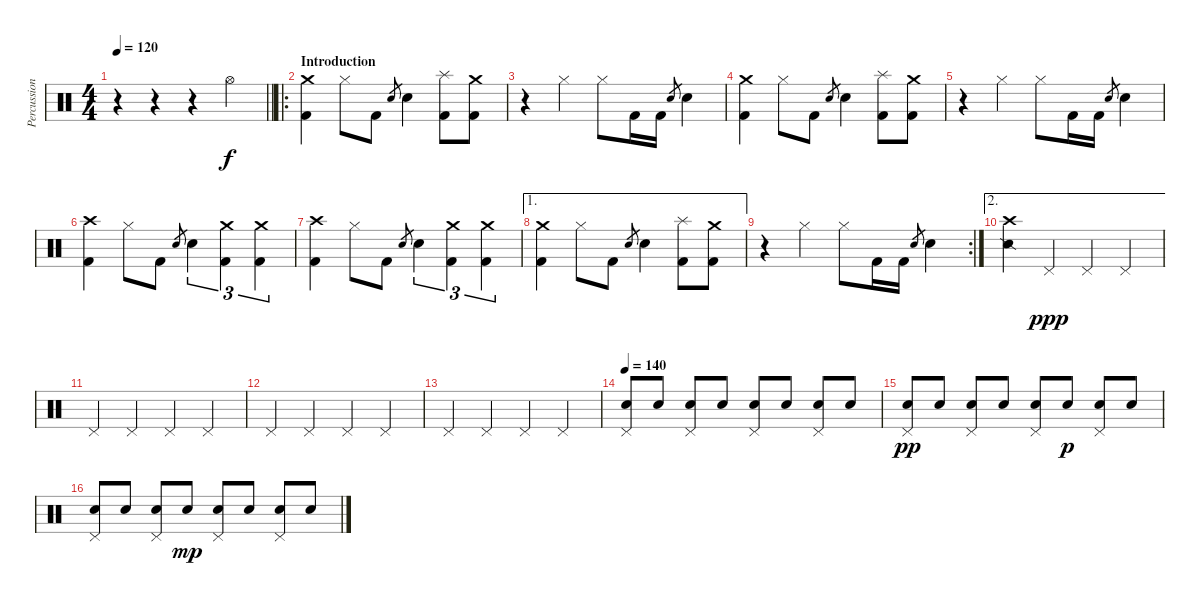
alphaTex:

\track ("Percussions" "Percussion") {instrument percussion}
\staff {score}
\articulation defaults
\ts (4 4)
\tempo 120
\tempo 140
\tempo 120
\clef neutral
\barLineRight lightlight
\ks c
r.4{dy f} r.4 r.4 "Hi-Hat (open)".4 |
\ro
\section ("" "Introduction")
("Crash medium (hit)" "Kick (hit) 2").4 "Hi-Hat (closed)".8 "Kick (hit) 2".8 "Electric Snare (hit)".8{gr} "Electric Snare (hit)".4 ("Splash (hit)" "Kick (hit) 2").8 ("Crash medium (hit)" "Kick (hit) 2").8 |
r.4 "Hi-Hat (closed)".4 "Hi-Hat (closed)".8 "Kick (hit) 2".16 "Kick (hit) 2".16 "Electric Snare (hit)".8{gr} "Electric Snare (hit)".4 |
("Crash medium (hit)" "Kick (hit) 2").4 "Hi-Hat (closed)".8 "Kick (hit) 2".8 "Electric Snare (hit)".8{gr} "Electric Snare (hit)".4 ("Splash (hit)" "Kick (hit) 2").8 ("Crash medium (hit)" "Kick (hit) 2").8 |
r.4 "Hi-Hat (closed)".4 "Hi-Hat (closed)".8 "Kick (hit) 2".16 "Kick (hit) 2".16 "Electric Snare (hit)".8{gr} "Electric Snare (hit)".4 |
("Crash high (hit)" "Kick (hit) 2").4 "Hi-Hat (closed)".8 "Kick (hit) 2".8 "Electric Snare (hit)".8{gr} "Electric Snare (hit)".4{tu (3 2)} ("Crash medium (hit)" "Kick (hit) 2").4{tu (3 2)} ("Crash medium (hit)" "Kick (hit) 2").4{tu (3 2)} |
("Crash high (hit)" "Kick (hit) 2").4 "Hi-Hat (closed)".8 "Kick (hit) 2".8 "Electric Snare (hit)".8{gr} "Electric Snare (hit)".4{tu (3 2)} ("Crash medium (hit)" "Kick (hit) 2").4{tu (3 2)} ("Crash medium (hit)" "Kick (hit) 2").4{tu (3 2)} |
\ae 1
("Crash medium (hit)" "Kick (hit) 2").4 "Hi-Hat (closed)".8 "Kick (hit) 2".8 "Electric Snare (hit)".8{gr} "Electric Snare (hit)".4 ("Splash (hit)" "Kick (hit) 2").8 ("Crash medium (hit)" "Kick (hit) 2").8 |
\rc 2
r.4 "Hi-Hat (closed)".4 "Hi-Hat (closed)".8 "Kick (hit) 2".16 "Kick (hit) 2".16 "Electric Snare (hit)".8{gr} "Electric Snare (hit)".4 |
\ae 2
("Crash high (hit)" "Snare (side stick) 2").4 "Pedal Hi-Hat (hit)".4{dy ppp} "Pedal Hi-Hat (hit)".4 "Pedal Hi-Hat (hit)".4 |
"Pedal Hi-Hat (hit)".4 "Pedal Hi-Hat (hit)".4 "Pedal Hi-Hat (hit)".4 "Pedal Hi-Hat (hit)".4 |
"Pedal Hi-Hat (hit)".4 "Pedal Hi-Hat (hit)".4 "Pedal Hi-Hat (hit)".4 "Pedal Hi-Hat (hit)".4 |
"Pedal Hi-Hat (hit)".4 "Pedal Hi-Hat (hit)".4 "Pedal Hi-Hat (hit)".4 "Pedal Hi-Hat (hit)".4 |
\tempo 140
("Pedal Hi-Hat (hit)" "Electric Snare (hit)").8 "Electric Snare (hit)".8 ("Pedal Hi-Hat (hit)" "Electric Snare (hit)").8 "Electric Snare (hit)".8 ("Pedal Hi-Hat (hit)" "Electric Snare (hit)").8 "Electric Snare (hit)".8 ("Pedal Hi-Hat (hit)" "Electric Snare (hit)").8 "Electric Snare (hit)".8 |
("Pedal Hi-Hat (hit)" "Electric Snare (hit)").8{dy pp} "Electric Snare (hit)".8 ("Pedal Hi-Hat (hit)" "Electric Snare (hit)").8 "Electric Snare (hit)".8 ("Pedal Hi-Hat (hit)" "Electric Snare (hit)").8 "Electric Snare (hit)".8{dy p} ("Pedal Hi-Hat (hit)" "Electric Snare (hit)").8 "Electric Snare (hit)".8 |
("Pedal Hi-Hat (hit)" "Electric Snare (hit)").8 "Electric Snare (hit)".8 ("Pedal Hi-Hat (hit)" "Electric Snare (hit)").8 "Electric Snare (hit)".8{dy mp} ("Pedal Hi-Hat (hit)" "Electric Snare (hit)").8 "Electric Snare (hit)".8 ("Pedal Hi-Hat (hit)" "Electric Snare (hit)").8 "Electric Snare (hit)".8
